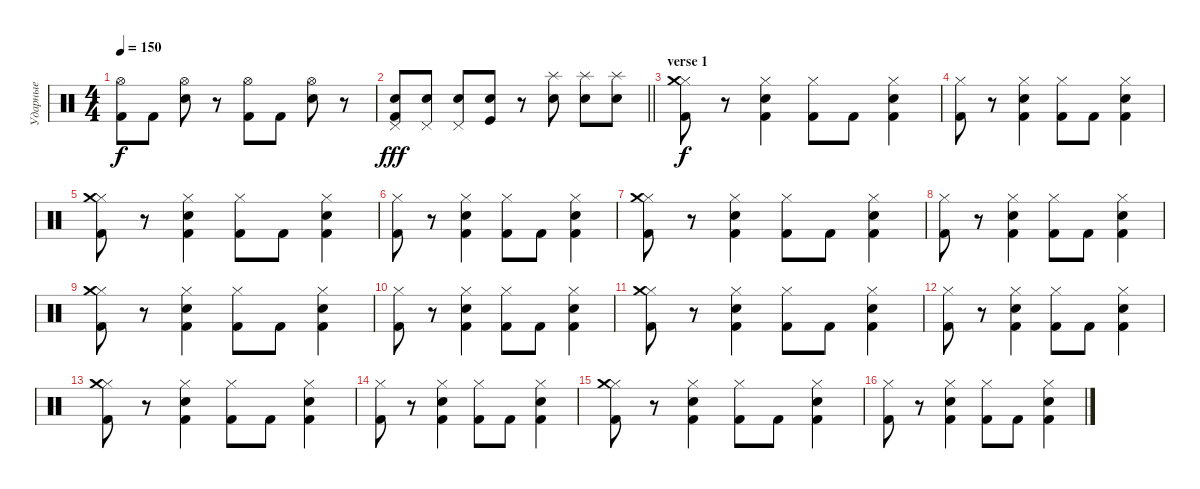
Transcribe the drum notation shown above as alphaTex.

\track ("Ударные" "Ударные") {instrument percussion}
\staff {score}
\articulation defaults
\ts (4 4)
\tempo 150
\clef neutral
\ks c
("Kick (hit) 2" "Hi-Hat (open)").8{dy f} "Kick (hit) 2".8 ("Snare (hit) 2" "Hi-Hat (open)").8 r.8 ("Kick (hit) 2" "Hi-Hat (open)").8 "Kick (hit) 2".8 ("Snare (hit) 2" "Hi-Hat (open)").8 r.8 |
\barLineRight lightlight
("Pedal Hi-Hat (hit)" "Kick (hit) 2" "Snare (hit) 2").8{dy fff} ("Pedal Hi-Hat (hit)" "Snare (hit) 2").8 ("Pedal Hi-Hat (hit)" "Snare (hit) 2").8 ("Kick (hit)" "Snare (hit) 2").8 r.8 ("Splash (hit)" "Snare (hit) 2").8 ("Splash (hit)" "Snare (hit) 2").8 ("Splash (hit)" "Snare (hit) 2").8 |
\section ("" "verse 1")
("Kick (hit) 2" "Hi-Hat (closed)" "Crash medium (hit)").8{dy f} r.8 ("Kick (hit) 2" "Snare (hit) 2" "Hi-Hat (closed)").4 ("Kick (hit) 2" "Hi-Hat (closed)").8 "Kick (hit) 2".8 ("Kick (hit) 2" "Snare (hit) 2" "Hi-Hat (closed)").4 |
("Kick (hit) 2" "Hi-Hat (closed)").8 r.8 ("Kick (hit) 2" "Snare (hit) 2" "Hi-Hat (closed)").4 ("Kick (hit) 2" "Hi-Hat (closed)").8 "Kick (hit) 2".8 ("Kick (hit) 2" "Snare (hit) 2" "Hi-Hat (closed)").4 |
("Kick (hit) 2" "Hi-Hat (closed)" "Crash medium (hit)").8 r.8 ("Kick (hit) 2" "Snare (hit) 2" "Hi-Hat (closed)").4 ("Kick (hit) 2" "Hi-Hat (closed)").8 "Kick (hit) 2".8 ("Kick (hit) 2" "Snare (hit) 2" "Hi-Hat (closed)").4 |
("Kick (hit) 2" "Hi-Hat (closed)").8 r.8 ("Kick (hit) 2" "Snare (hit) 2" "Hi-Hat (closed)").4 ("Kick (hit) 2" "Hi-Hat (closed)").8 "Kick (hit) 2".8 ("Kick (hit) 2" "Snare (hit) 2" "Hi-Hat (closed)").4 |
("Kick (hit) 2" "Hi-Hat (closed)" "Crash medium (hit)").8 r.8 ("Kick (hit) 2" "Snare (hit) 2" "Hi-Hat (closed)").4 ("Kick (hit) 2" "Hi-Hat (closed)").8 "Kick (hit) 2".8 ("Kick (hit) 2" "Snare (hit) 2" "Hi-Hat (closed)").4 |
("Kick (hit) 2" "Hi-Hat (closed)").8 r.8 ("Kick (hit) 2" "Snare (hit) 2" "Hi-Hat (closed)").4 ("Kick (hit) 2" "Hi-Hat (closed)").8 "Kick (hit) 2".8 ("Kick (hit) 2" "Snare (hit) 2" "Hi-Hat (closed)").4 |
("Kick (hit) 2" "Hi-Hat (closed)" "Crash medium (hit)").8 r.8 ("Kick (hit) 2" "Snare (hit) 2" "Hi-Hat (closed)").4 ("Kick (hit) 2" "Hi-Hat (closed)").8 "Kick (hit) 2".8 ("Kick (hit) 2" "Snare (hit) 2" "Hi-Hat (closed)").4 |
("Kick (hit) 2" "Hi-Hat (closed)").8 r.8 ("Kick (hit) 2" "Snare (hit) 2" "Hi-Hat (closed)").4 ("Kick (hit) 2" "Hi-Hat (closed)").8 "Kick (hit) 2".8 ("Kick (hit) 2" "Snare (hit) 2" "Hi-Hat (closed)").4 |
("Kick (hit) 2" "Hi-Hat (closed)" "Crash medium (hit)").8 r.8 ("Kick (hit) 2" "Snare (hit) 2" "Hi-Hat (closed)").4 ("Kick (hit) 2" "Hi-Hat (closed)").8 "Kick (hit) 2".8 ("Kick (hit) 2" "Snare (hit) 2" "Hi-Hat (closed)").4 |
("Kick (hit) 2" "Hi-Hat (closed)").8 r.8 ("Kick (hit) 2" "Snare (hit) 2" "Hi-Hat (closed)").4 ("Kick (hit) 2" "Hi-Hat (closed)").8 "Kick (hit) 2".8 ("Kick (hit) 2" "Snare (hit) 2" "Hi-Hat (closed)").4 |
("Kick (hit) 2" "Hi-Hat (closed)" "Crash medium (hit)").8 r.8 ("Kick (hit) 2" "Snare (hit) 2" "Hi-Hat (closed)").4 ("Kick (hit) 2" "Hi-Hat (closed)").8 "Kick (hit) 2".8 ("Kick (hit) 2" "Snare (hit) 2" "Hi-Hat (closed)").4 |
("Kick (hit) 2" "Hi-Hat (closed)").8 r.8 ("Kick (hit) 2" "Snare (hit) 2" "Hi-Hat (closed)").4 ("Kick (hit) 2" "Hi-Hat (closed)").8 "Kick (hit) 2".8 ("Kick (hit) 2" "Snare (hit) 2" "Hi-Hat (closed)").4 |
("Kick (hit) 2" "Hi-Hat (closed)" "Crash medium (hit)").8 r.8 ("Kick (hit) 2" "Snare (hit) 2" "Hi-Hat (closed)").4 ("Kick (hit) 2" "Hi-Hat (closed)").8 "Kick (hit) 2".8 ("Kick (hit) 2" "Snare (hit) 2" "Hi-Hat (closed)").4 |
("Kick (hit) 2" "Hi-Hat (closed)").8 r.8 ("Kick (hit) 2" "Snare (hit) 2" "Hi-Hat (closed)").4 ("Kick (hit) 2" "Hi-Hat (closed)").8 "Kick (hit) 2".8 ("Kick (hit) 2" "Snare (hit) 2" "Hi-Hat (closed)").4
